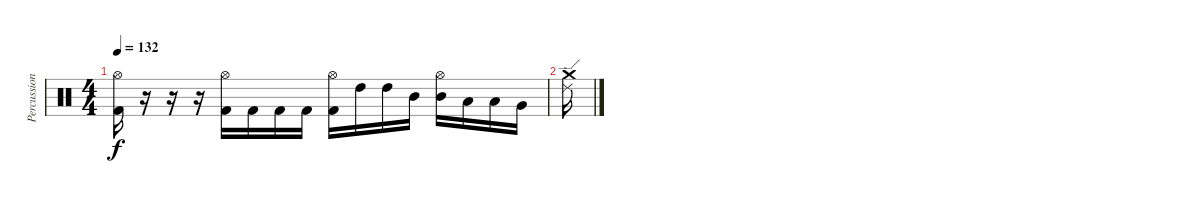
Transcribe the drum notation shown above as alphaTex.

\track ("Percussion" "Percussion") {instrument percussion}
\staff {score}
\articulation defaults
\ts (4 4)
\tempo 132
\clef neutral
\ks c
("Hi-Hat (open)" "Kick (hit) 2").16{dy f} r.16 r.16 r.16 ("Hi-Hat (open)" "Kick (hit) 2").16 "Kick (hit) 2".16 "Kick (hit) 2".16 "Kick (hit) 2".16 ("Hi-Hat (open)" "Kick (hit) 2").16 "High Tom (hit)".16 "High Tom (hit)".16 "Mid Tom (hit)".16 ("Hi-Hat (open)" "Mid Tom (hit)").16 "Low Tom (hit)".16 "Low Tom (hit)".16 "Very Low Tom (hit)".16 |
("Crash medium (hit)" "Ride (edge) 2").16
